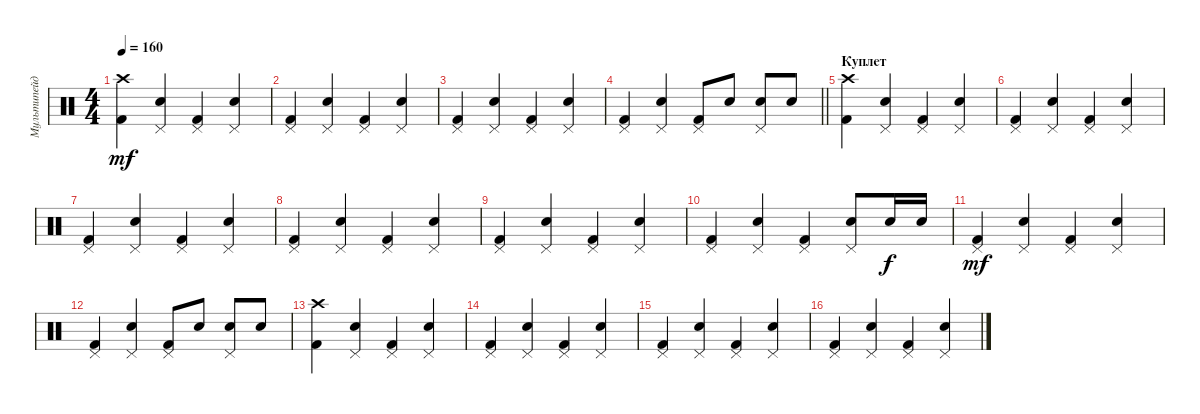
\track ("Мультипейджер" "Мультипейд") {instrument percussion}
\staff {score}
\articulation defaults
\ts (4 4)
\tempo 160
\clef neutral
\ks c
("Crash high (hit)" "Kick (hit) 2").4{dy mf} ("Pedal Hi-Hat (hit)" "Snare (hit) 2").4 ("Pedal Hi-Hat (hit)" "Kick (hit) 2").4 ("Pedal Hi-Hat (hit)" "Snare (hit) 2").4 |
("Pedal Hi-Hat (hit)" "Kick (hit) 2").4 ("Pedal Hi-Hat (hit)" "Snare (hit) 2").4 ("Pedal Hi-Hat (hit)" "Kick (hit) 2").4 ("Pedal Hi-Hat (hit)" "Snare (hit) 2").4 |
("Pedal Hi-Hat (hit)" "Kick (hit) 2").4 ("Pedal Hi-Hat (hit)" "Snare (hit) 2").4 ("Pedal Hi-Hat (hit)" "Kick (hit) 2").4 ("Pedal Hi-Hat (hit)" "Snare (hit) 2").4 |
\barLineRight lightlight
("Pedal Hi-Hat (hit)" "Kick (hit) 2").4 ("Pedal Hi-Hat (hit)" "Snare (hit) 2").4 ("Pedal Hi-Hat (hit)" "Kick (hit) 2").8 "Electric Snare (hit)".8 ("Pedal Hi-Hat (hit)" "Electric Snare (hit)").8 "Electric Snare (hit)".8 |
\section ("" "Куплет")
("Crash high (hit)" "Kick (hit) 2").4 ("Pedal Hi-Hat (hit)" "Snare (hit) 2").4 ("Pedal Hi-Hat (hit)" "Kick (hit) 2").4 ("Pedal Hi-Hat (hit)" "Snare (hit) 2").4 |
("Pedal Hi-Hat (hit)" "Kick (hit) 2").4 ("Pedal Hi-Hat (hit)" "Snare (hit) 2").4 ("Pedal Hi-Hat (hit)" "Kick (hit) 2").4 ("Pedal Hi-Hat (hit)" "Snare (hit) 2").4 |
("Pedal Hi-Hat (hit)" "Kick (hit) 2").4 ("Pedal Hi-Hat (hit)" "Snare (hit) 2").4 ("Pedal Hi-Hat (hit)" "Kick (hit) 2").4 ("Pedal Hi-Hat (hit)" "Snare (hit) 2").4 |
("Pedal Hi-Hat (hit)" "Kick (hit) 2").4 ("Pedal Hi-Hat (hit)" "Snare (hit) 2").4 ("Pedal Hi-Hat (hit)" "Kick (hit) 2").4 ("Pedal Hi-Hat (hit)" "Snare (hit) 2").4 |
("Pedal Hi-Hat (hit)" "Kick (hit) 2").4 ("Pedal Hi-Hat (hit)" "Snare (hit) 2").4 ("Pedal Hi-Hat (hit)" "Kick (hit) 2").4 ("Pedal Hi-Hat (hit)" "Snare (hit) 2").4 |
("Pedal Hi-Hat (hit)" "Kick (hit) 2").4 ("Pedal Hi-Hat (hit)" "Snare (hit) 2").4 ("Pedal Hi-Hat (hit)" "Kick (hit) 2").4 ("Pedal Hi-Hat (hit)" "Snare (hit) 2").8 "Electric Snare (hit)".16{dy f} "Electric Snare (hit)".16 |
("Pedal Hi-Hat (hit)" "Kick (hit) 2").4{dy mf} ("Pedal Hi-Hat (hit)" "Snare (hit) 2").4 ("Pedal Hi-Hat (hit)" "Kick (hit) 2").4 ("Pedal Hi-Hat (hit)" "Snare (hit) 2").4 |
("Pedal Hi-Hat (hit)" "Kick (hit) 2").4 ("Pedal Hi-Hat (hit)" "Snare (hit) 2").4 ("Pedal Hi-Hat (hit)" "Kick (hit) 2").8 "Electric Snare (hit)".8 ("Pedal Hi-Hat (hit)" "Electric Snare (hit)").8 "Electric Snare (hit)".8 |
("Crash high (hit)" "Kick (hit) 2").4 ("Pedal Hi-Hat (hit)" "Snare (hit) 2").4 ("Pedal Hi-Hat (hit)" "Kick (hit) 2").4 ("Pedal Hi-Hat (hit)" "Snare (hit) 2").4 |
("Pedal Hi-Hat (hit)" "Kick (hit) 2").4 ("Pedal Hi-Hat (hit)" "Snare (hit) 2").4 ("Pedal Hi-Hat (hit)" "Kick (hit) 2").4 ("Pedal Hi-Hat (hit)" "Snare (hit) 2").4 |
("Pedal Hi-Hat (hit)" "Kick (hit) 2").4 ("Pedal Hi-Hat (hit)" "Snare (hit) 2").4 ("Pedal Hi-Hat (hit)" "Kick (hit) 2").4 ("Pedal Hi-Hat (hit)" "Snare (hit) 2").4 |
("Pedal Hi-Hat (hit)" "Kick (hit) 2").4 ("Pedal Hi-Hat (hit)" "Snare (hit) 2").4 ("Pedal Hi-Hat (hit)" "Kick (hit) 2").4 ("Pedal Hi-Hat (hit)" "Snare (hit) 2").4
